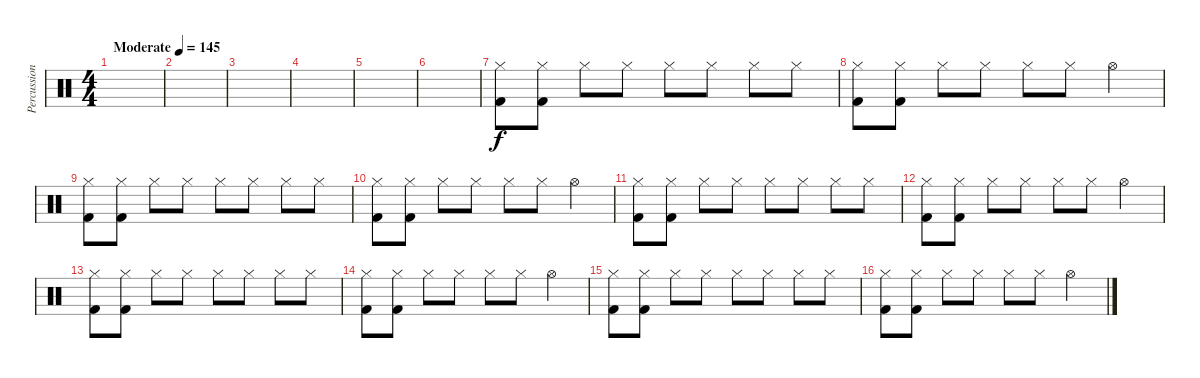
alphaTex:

\track ("Percussion" "Percussion") {instrument percussion}
\staff {score}
\articulation defaults
\ts (4 4)
\tempo (145 "Moderate")
\clef neutral
\ks c
|
|
|
|
|
|
("Hi-Hat (closed)" "Kick (hit) 2").8 ("Hi-Hat (closed)" "Kick (hit) 2").8 "Hi-Hat (closed)".8 "Hi-Hat (closed)".8 "Hi-Hat (closed)".8 "Hi-Hat (closed)".8 "Hi-Hat (closed)".8 "Hi-Hat (closed)".8 |
("Hi-Hat (closed)" "Kick (hit) 2").8 ("Hi-Hat (closed)" "Kick (hit) 2").8 "Hi-Hat (closed)".8 "Hi-Hat (closed)".8 "Hi-Hat (closed)".8 "Hi-Hat (closed)".8 "Hi-Hat (open)".4 |
("Hi-Hat (closed)" "Kick (hit) 2").8 ("Hi-Hat (closed)" "Kick (hit) 2").8 "Hi-Hat (closed)".8 "Hi-Hat (closed)".8 "Hi-Hat (closed)".8 "Hi-Hat (closed)".8 "Hi-Hat (closed)".8 "Hi-Hat (closed)".8 |
("Hi-Hat (closed)" "Kick (hit) 2").8 ("Hi-Hat (closed)" "Kick (hit) 2").8 "Hi-Hat (closed)".8 "Hi-Hat (closed)".8 "Hi-Hat (closed)".8 "Hi-Hat (closed)".8 "Hi-Hat (open)".4 |
("Hi-Hat (closed)" "Kick (hit) 2").8 ("Hi-Hat (closed)" "Kick (hit) 2").8 "Hi-Hat (closed)".8 "Hi-Hat (closed)".8 "Hi-Hat (closed)".8 "Hi-Hat (closed)".8 "Hi-Hat (closed)".8 "Hi-Hat (closed)".8 |
("Hi-Hat (closed)" "Kick (hit) 2").8 ("Hi-Hat (closed)" "Kick (hit) 2").8 "Hi-Hat (closed)".8 "Hi-Hat (closed)".8 "Hi-Hat (closed)".8 "Hi-Hat (closed)".8 "Hi-Hat (open)".4 |
("Hi-Hat (closed)" "Kick (hit) 2").8 ("Hi-Hat (closed)" "Kick (hit) 2").8 "Hi-Hat (closed)".8 "Hi-Hat (closed)".8 "Hi-Hat (closed)".8 "Hi-Hat (closed)".8 "Hi-Hat (closed)".8 "Hi-Hat (closed)".8 |
("Hi-Hat (closed)" "Kick (hit) 2").8 ("Hi-Hat (closed)" "Kick (hit) 2").8 "Hi-Hat (closed)".8 "Hi-Hat (closed)".8 "Hi-Hat (closed)".8 "Hi-Hat (closed)".8 "Hi-Hat (open)".4 |
("Hi-Hat (closed)" "Kick (hit) 2").8 ("Hi-Hat (closed)" "Kick (hit) 2").8 "Hi-Hat (closed)".8 "Hi-Hat (closed)".8 "Hi-Hat (closed)".8 "Hi-Hat (closed)".8 "Hi-Hat (closed)".8 "Hi-Hat (closed)".8 |
("Hi-Hat (closed)" "Kick (hit) 2").8 ("Hi-Hat (closed)" "Kick (hit) 2").8 "Hi-Hat (closed)".8 "Hi-Hat (closed)".8 "Hi-Hat (closed)".8 "Hi-Hat (closed)".8 "Hi-Hat (open)".4
